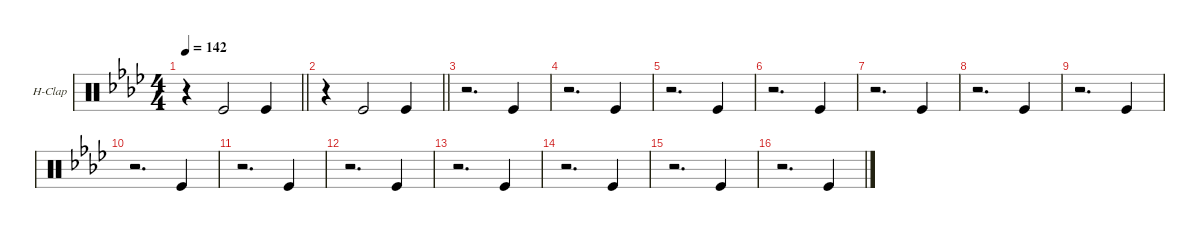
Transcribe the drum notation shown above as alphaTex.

\defaultSystemsLayout 4
\hideDynamics
\bracketExtendMode groupsimilarinstruments
\firstSystemTrackNameOrientation horizontal
\otherSystemsTrackNameOrientation horizontal
\track ("Hand Clap" "H-Clap") {multiBarRest instrument percussion}
\staff {score}
\articulation defaults
\ts (4 4)
\tempo 142
\clef neutral
\barLineRight lightlight
\ks ab
r.4{dy fff} "Kick (hit)".2 "Kick (hit)".4 |
\barLineRight lightlight
r.4 "Kick (hit)".2 "Kick (hit)".4 |
r.2{d} "Kick (hit)".4 |
r.2{d} "Kick (hit)".4 |
r.2{d} "Kick (hit)".4 |
r.2{d} "Kick (hit)".4 |
r.2{d} "Kick (hit)".4 |
r.2{d} "Kick (hit)".4 |
r.2{d} "Kick (hit)".4 |
r.2{d} "Kick (hit)".4 |
r.2{d} "Kick (hit)".4 |
r.2{d} "Kick (hit)".4 |
r.2{d} "Kick (hit)".4 |
r.2{d} "Kick (hit)".4 |
r.2{d} "Kick (hit)".4 |
r.2{d} "Kick (hit)".4
